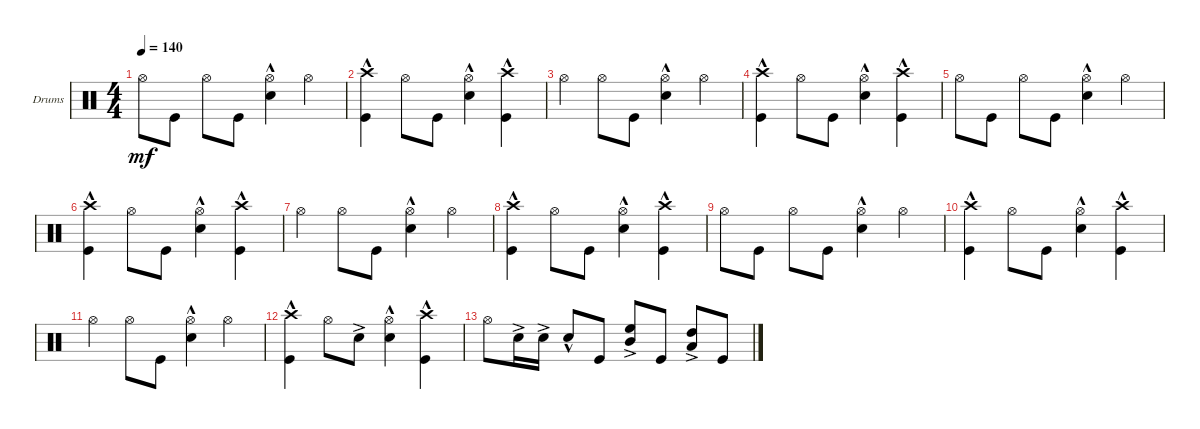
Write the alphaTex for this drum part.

\bracketExtendMode groupsimilarinstruments
\firstSystemTrackNameOrientation horizontal
\otherSystemsTrackNameOrientation horizontal
\track ("Drumkit" "Drums") {instrument percussion}
\staff {score}
\articulation defaults
\ts (4 4)
\tempo 140
\clef neutral
\ks c "Hi-Hat (open)".8{dy mf} "Kick (hit)".8 "Hi-Hat (open)".8 "Kick (hit)".8
("Hi-Hat (open)" "Snare (hit) 2"{hac}).4 "Hi-Hat (open)".4 |
("Kick (hit)" "Crash high (hit)"{hac}).4 "Hi-Hat (open)".8 "Kick (hit)".8 ("Hi-Hat (open)" "Snare (hit) 2"{hac}).4 ("Kick (hit)" "Crash high (hit)"{hac}).4 |
"Hi-Hat (open)".4 "Hi-Hat (open)".8 "Kick (hit)".8 ("Hi-Hat (open)" "Snare (hit) 2"{hac}).4 "Hi-Hat (open)".4 |
("Kick (hit)" "Crash high (hit)"{hac}).4 "Hi-Hat (open)".8 "Kick (hit)".8 ("Hi-Hat (open)" "Snare (hit) 2"{hac}).4 ("Kick (hit)" "Crash high (hit)"{hac}).4 |
"Hi-Hat (open)".8 "Kick (hit)".8 "Hi-Hat (open)".8 "Kick (hit)".8 ("Hi-Hat (open)" "Snare (hit) 2"{hac}).4 "Hi-Hat (open)".4 |
("Kick (hit)" "Crash high (hit)"{hac}).4 "Hi-Hat (open)".8 "Kick (hit)".8 ("Hi-Hat (open)" "Snare (hit) 2"{hac}).4 ("Kick (hit)" "Crash high (hit)"{hac}).4 |
"Hi-Hat (open)".4 "Hi-Hat (open)".8 "Kick (hit)".8 ("Hi-Hat (open)" "Snare (hit) 2"{hac}).4 "Hi-Hat (open)".4 |
("Kick (hit)" "Crash high (hit)"{hac}).4 "Hi-Hat (open)".8 "Kick (hit)".8 ("Hi-Hat (open)" "Snare (hit) 2"{hac}).4 ("Kick (hit)" "Crash high (hit)"{hac}).4 |
"Hi-Hat (open)".8 "Kick (hit)".8 "Hi-Hat (open)".8 "Kick (hit)".8 ("Hi-Hat (open)" "Snare (hit) 2"{hac}).4 "Hi-Hat (open)".4 |
("Kick (hit)" "Crash high (hit)"{hac}).4 "Hi-Hat (open)".8 "Kick (hit)".8 ("Hi-Hat (open)" "Snare (hit) 2"{hac}).4 ("Kick (hit)" "Crash high (hit)"{hac}).4 |
"Hi-Hat (open)".4 "Hi-Hat (open)".8 "Kick (hit)".8 ("Hi-Hat (open)" "Snare (hit) 2"{hac}).4 "Hi-Hat (open)".4 |
("Kick (hit)" "Crash high (hit)"{hac}).4 "Hi-Hat (open)".8 "Snare (hit) 2"{ac}.8 ("Hi-Hat (open)" "Snare (hit) 2"{hac}).4 ("Kick (hit)" "Crash high (hit)"{hac}).4 |
"Hi-Hat (open)".8 "Snare (hit) 2"{ac}.16 "Snare (hit) 2"{ac}.16 "Snare (hit) 2"{hac}.8 "Kick (hit)".8 ("High Floor Tom (hit)"{ac} "Mid Tom (hit)"{ac}).8 "Kick (hit)".8 ("High Tom (hit)"{ac} "Low Tom (hit)"{ac}).8 "Kick (hit)".8
